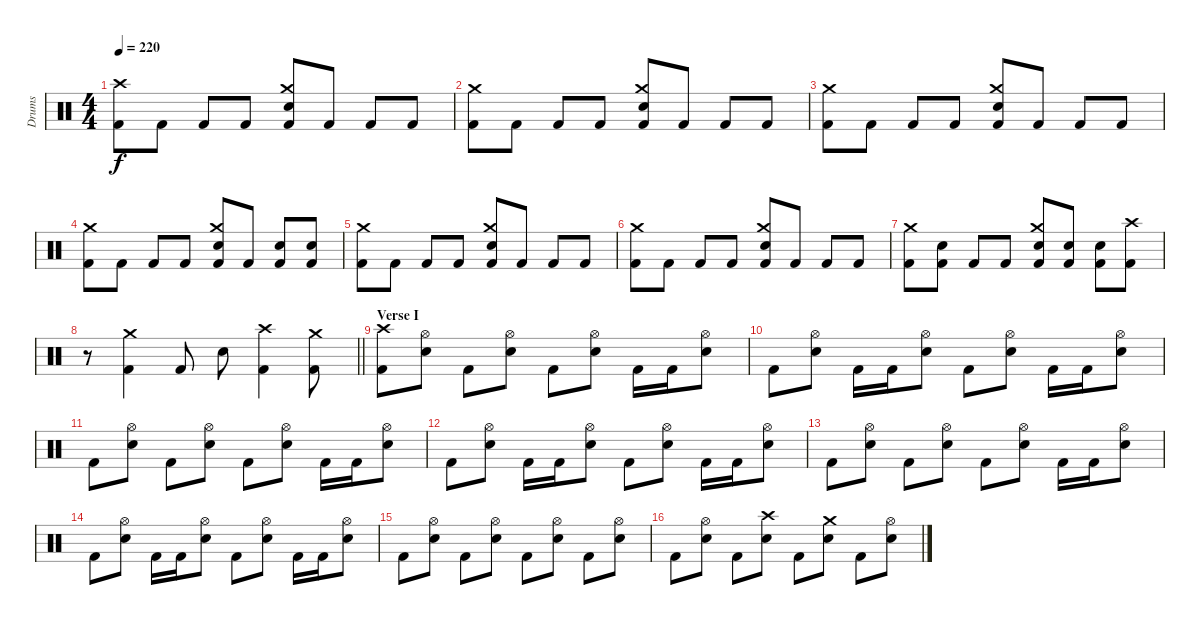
\track ("Drums" "Drums") {instrument percussion}
\staff {score}
\articulation defaults
\ts (4 4)
\tempo 220
\clef neutral
\ks c
("Crash high (hit)" "Kick (hit) 2").8{dy f} "Kick (hit) 2".8 "Kick (hit) 2".8 "Kick (hit) 2".8 ("Crash medium (hit)" "Snare (hit) 2" "Kick (hit) 2").8 "Kick (hit) 2".8 "Kick (hit) 2".8 "Kick (hit) 2".8 |
("Crash medium (hit)" "Kick (hit) 2").8 "Kick (hit) 2".8 "Kick (hit) 2".8 "Kick (hit) 2".8 ("Crash medium (hit)" "Snare (hit) 2" "Kick (hit) 2").8 "Kick (hit) 2".8 "Kick (hit) 2".8 "Kick (hit) 2".8 |
("Crash medium (hit)" "Kick (hit) 2").8 "Kick (hit) 2".8 "Kick (hit) 2".8 "Kick (hit) 2".8 ("Crash medium (hit)" "Snare (hit) 2" "Kick (hit) 2").8 "Kick (hit) 2".8 "Kick (hit) 2".8 "Kick (hit) 2".8 |
("Crash medium (hit)" "Kick (hit) 2").8 "Kick (hit) 2".8 "Kick (hit) 2".8 "Kick (hit) 2".8 ("Crash medium (hit)" "Snare (hit) 2" "Kick (hit) 2").8 "Kick (hit) 2".8 ("Snare (hit) 2" "Kick (hit) 2").8 ("Snare (hit) 2" "Kick (hit) 2").8 |
("Crash medium (hit)" "Kick (hit) 2").8 "Kick (hit) 2".8 "Kick (hit) 2".8 "Kick (hit) 2".8 ("Crash medium (hit)" "Snare (hit) 2" "Kick (hit) 2").8 "Kick (hit) 2".8 "Kick (hit) 2".8 "Kick (hit) 2".8 |
("Crash medium (hit)" "Kick (hit) 2").8 "Kick (hit) 2".8 "Kick (hit) 2".8 "Kick (hit) 2".8 ("Crash medium (hit)" "Snare (hit) 2" "Kick (hit) 2").8 "Kick (hit) 2".8 "Kick (hit) 2".8 "Kick (hit) 2".8 |
("Crash medium (hit)" "Kick (hit) 2").8 ("Snare (hit) 2" "Kick (hit) 2").8 "Kick (hit) 2".8 "Kick (hit) 2".8 ("Crash medium (hit)" "Snare (hit) 2" "Kick (hit) 2").8 ("Snare (hit) 2" "Kick (hit) 2").8 ("Snare (hit) 2" "Kick (hit) 2").8 ("Crash high (hit)" "Kick (hit) 2").8 |
\barLineRight lightlight
r.8 ("Crash medium (hit)" "Kick (hit) 2").4 "Kick (hit) 2".8 "Snare (hit) 2".8 ("Crash high (hit)" "Kick (hit) 2").4 ("Crash medium (hit)" "Kick (hit) 2").8 |
\section ("" "Verse I")
("Crash high (hit)" "Kick (hit) 2").8 ("Hi-Hat (open)" "Snare (hit) 2").8 "Kick (hit) 2".8 ("Hi-Hat (open)" "Snare (hit) 2").8 "Kick (hit) 2".8 ("Hi-Hat (open)" "Snare (hit) 2").8 "Kick (hit) 2".16 "Kick (hit) 2".16 ("Hi-Hat (open)" "Snare (hit) 2").8 |
"Kick (hit) 2".8 ("Hi-Hat (open)" "Snare (hit) 2").8 "Kick (hit) 2".16 "Kick (hit) 2".16 ("Hi-Hat (open)" "Snare (hit) 2").8 "Kick (hit) 2".8 ("Hi-Hat (open)" "Snare (hit) 2").8 "Kick (hit) 2".16 "Kick (hit) 2".16 ("Hi-Hat (open)" "Snare (hit) 2").8 |
"Kick (hit) 2".8 ("Hi-Hat (open)" "Snare (hit) 2").8 "Kick (hit) 2".8 ("Hi-Hat (open)" "Snare (hit) 2").8 "Kick (hit) 2".8 ("Hi-Hat (open)" "Snare (hit) 2").8 "Kick (hit) 2".16 "Kick (hit) 2".16 ("Hi-Hat (open)" "Snare (hit) 2").8 |
"Kick (hit) 2".8 ("Hi-Hat (open)" "Snare (hit) 2").8 "Kick (hit) 2".16 "Kick (hit) 2".16 ("Hi-Hat (open)" "Snare (hit) 2").8 "Kick (hit) 2".8 ("Hi-Hat (open)" "Snare (hit) 2").8 "Kick (hit) 2".16 "Kick (hit) 2".16 ("Hi-Hat (open)" "Snare (hit) 2").8 |
"Kick (hit) 2".8 ("Hi-Hat (open)" "Snare (hit) 2").8 "Kick (hit) 2".8 ("Hi-Hat (open)" "Snare (hit) 2").8 "Kick (hit) 2".8 ("Hi-Hat (open)" "Snare (hit) 2").8 "Kick (hit) 2".16 "Kick (hit) 2".16 ("Hi-Hat (open)" "Snare (hit) 2").8 |
"Kick (hit) 2".8 ("Hi-Hat (open)" "Snare (hit) 2").8 "Kick (hit) 2".16 "Kick (hit) 2".16 ("Hi-Hat (open)" "Snare (hit) 2").8 "Kick (hit) 2".8 ("Hi-Hat (open)" "Snare (hit) 2").8 "Kick (hit) 2".16 "Kick (hit) 2".16 ("Hi-Hat (open)" "Snare (hit) 2").8 |
"Kick (hit) 2".8 ("Hi-Hat (open)" "Snare (hit) 2").8 "Kick (hit) 2".8 ("Hi-Hat (open)" "Snare (hit) 2").8 "Kick (hit) 2".8 ("Hi-Hat (open)" "Snare (hit) 2").8 "Kick (hit) 2".8 ("Hi-Hat (open)" "Snare (hit) 2").8 |
"Kick (hit) 2".8 ("Hi-Hat (open)" "Snare (hit) 2").8 "Kick (hit) 2".8 ("Crash high (hit)" "Snare (hit) 2").8 "Kick (hit) 2".8 ("Crash medium (hit)" "Snare (hit) 2").8 "Kick (hit) 2".8 ("Hi-Hat (open)" "Snare (hit) 2").8
